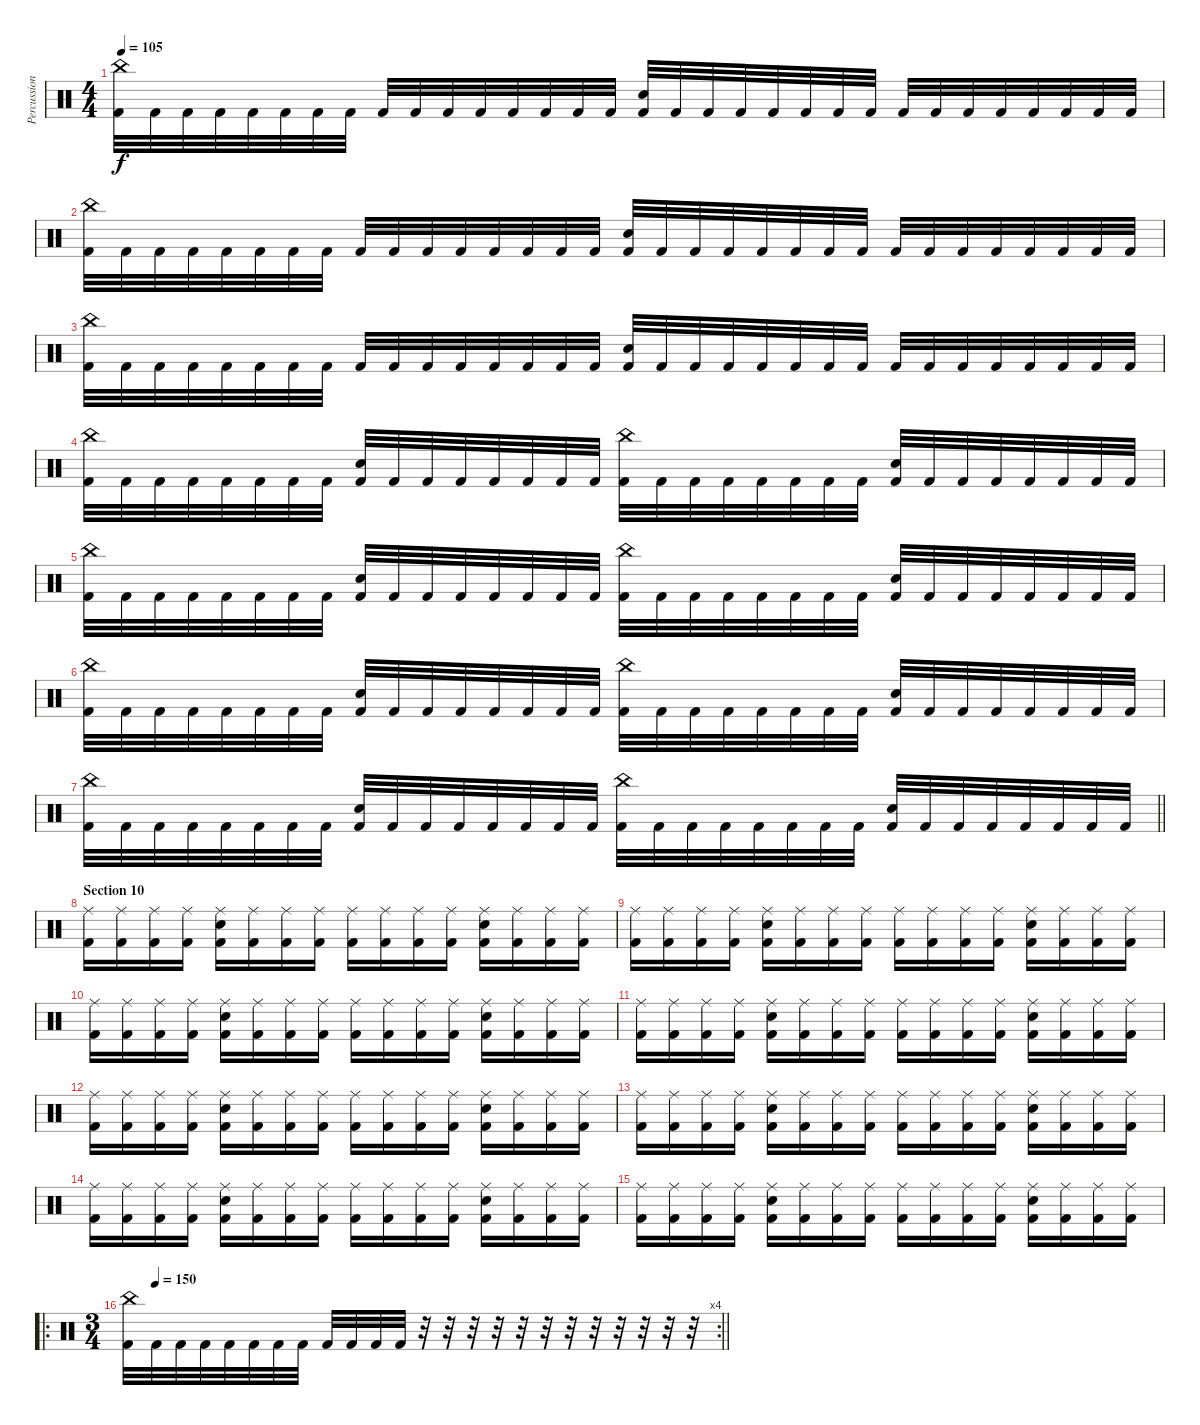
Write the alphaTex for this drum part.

\track ("Percussions" "Percussion") {instrument percussion}
\staff {score}
\articulation defaults
\ts (4 4)
\tempo 105
\clef neutral
\ks c
("China (hit)" "Kick (hit) 2").32{dy f} "Kick (hit) 2".32 "Kick (hit) 2".32 "Kick (hit) 2".32 "Kick (hit) 2".32 "Kick (hit) 2".32 "Kick (hit) 2".32 "Kick (hit) 2".32 "Kick (hit) 2".32 "Kick (hit) 2".32 "Kick (hit) 2".32 "Kick (hit) 2".32 "Kick (hit) 2".32 "Kick (hit) 2".32 "Kick (hit) 2".32 "Kick (hit) 2".32 ("Electric Snare (hit)" "Kick (hit) 2").32 "Kick (hit) 2".32 "Kick (hit) 2".32 "Kick (hit) 2".32 "Kick (hit) 2".32 "Kick (hit) 2".32 "Kick (hit) 2".32 "Kick (hit) 2".32 "Kick (hit) 2".32 "Kick (hit) 2".32 "Kick (hit) 2".32 "Kick (hit) 2".32 "Kick (hit) 2".32 "Kick (hit) 2".32 "Kick (hit) 2".32 "Kick (hit) 2".32 |
("China (hit)" "Kick (hit) 2").32 "Kick (hit) 2".32 "Kick (hit) 2".32 "Kick (hit) 2".32 "Kick (hit) 2".32 "Kick (hit) 2".32 "Kick (hit) 2".32 "Kick (hit) 2".32 "Kick (hit) 2".32 "Kick (hit) 2".32 "Kick (hit) 2".32 "Kick (hit) 2".32 "Kick (hit) 2".32 "Kick (hit) 2".32 "Kick (hit) 2".32 "Kick (hit) 2".32 ("Electric Snare (hit)" "Kick (hit) 2").32 "Kick (hit) 2".32 "Kick (hit) 2".32 "Kick (hit) 2".32 "Kick (hit) 2".32 "Kick (hit) 2".32 "Kick (hit) 2".32 "Kick (hit) 2".32 "Kick (hit) 2".32 "Kick (hit) 2".32 "Kick (hit) 2".32 "Kick (hit) 2".32 "Kick (hit) 2".32 "Kick (hit) 2".32 "Kick (hit) 2".32 "Kick (hit) 2".32 |
("China (hit)" "Kick (hit) 2").32 "Kick (hit) 2".32 "Kick (hit) 2".32 "Kick (hit) 2".32 "Kick (hit) 2".32 "Kick (hit) 2".32 "Kick (hit) 2".32 "Kick (hit) 2".32 "Kick (hit) 2".32 "Kick (hit) 2".32 "Kick (hit) 2".32 "Kick (hit) 2".32 "Kick (hit) 2".32 "Kick (hit) 2".32 "Kick (hit) 2".32 "Kick (hit) 2".32 ("Electric Snare (hit)" "Kick (hit) 2").32 "Kick (hit) 2".32 "Kick (hit) 2".32 "Kick (hit) 2".32 "Kick (hit) 2".32 "Kick (hit) 2".32 "Kick (hit) 2".32 "Kick (hit) 2".32 "Kick (hit) 2".32 "Kick (hit) 2".32 "Kick (hit) 2".32 "Kick (hit) 2".32 "Kick (hit) 2".32 "Kick (hit) 2".32 "Kick (hit) 2".32 "Kick (hit) 2".32 |
("China (hit)" "Kick (hit) 2").32 "Kick (hit) 2".32 "Kick (hit) 2".32 "Kick (hit) 2".32 "Kick (hit) 2".32 "Kick (hit) 2".32 "Kick (hit) 2".32 "Kick (hit) 2".32 ("Electric Snare (hit)" "Kick (hit) 2").32 "Kick (hit) 2".32 "Kick (hit) 2".32 "Kick (hit) 2".32 "Kick (hit) 2".32 "Kick (hit) 2".32 "Kick (hit) 2".32 "Kick (hit) 2".32 ("China (hit)" "Kick (hit) 2").32 "Kick (hit) 2".32 "Kick (hit) 2".32 "Kick (hit) 2".32 "Kick (hit) 2".32 "Kick (hit) 2".32 "Kick (hit) 2".32 "Kick (hit) 2".32 ("Electric Snare (hit)" "Kick (hit) 2").32 "Kick (hit) 2".32 "Kick (hit) 2".32 "Kick (hit) 2".32 "Kick (hit) 2".32 "Kick (hit) 2".32 "Kick (hit) 2".32 "Kick (hit) 2".32 |
("China (hit)" "Kick (hit) 2").32 "Kick (hit) 2".32 "Kick (hit) 2".32 "Kick (hit) 2".32 "Kick (hit) 2".32 "Kick (hit) 2".32 "Kick (hit) 2".32 "Kick (hit) 2".32 ("Electric Snare (hit)" "Kick (hit) 2").32 "Kick (hit) 2".32 "Kick (hit) 2".32 "Kick (hit) 2".32 "Kick (hit) 2".32 "Kick (hit) 2".32 "Kick (hit) 2".32 "Kick (hit) 2".32 ("China (hit)" "Kick (hit) 2").32 "Kick (hit) 2".32 "Kick (hit) 2".32 "Kick (hit) 2".32 "Kick (hit) 2".32 "Kick (hit) 2".32 "Kick (hit) 2".32 "Kick (hit) 2".32 ("Electric Snare (hit)" "Kick (hit) 2").32 "Kick (hit) 2".32 "Kick (hit) 2".32 "Kick (hit) 2".32 "Kick (hit) 2".32 "Kick (hit) 2".32 "Kick (hit) 2".32 "Kick (hit) 2".32 |
("China (hit)" "Kick (hit) 2").32 "Kick (hit) 2".32 "Kick (hit) 2".32 "Kick (hit) 2".32 "Kick (hit) 2".32 "Kick (hit) 2".32 "Kick (hit) 2".32 "Kick (hit) 2".32 ("Electric Snare (hit)" "Kick (hit) 2").32 "Kick (hit) 2".32 "Kick (hit) 2".32 "Kick (hit) 2".32 "Kick (hit) 2".32 "Kick (hit) 2".32 "Kick (hit) 2".32 "Kick (hit) 2".32 ("China (hit)" "Kick (hit) 2").32 "Kick (hit) 2".32 "Kick (hit) 2".32 "Kick (hit) 2".32 "Kick (hit) 2".32 "Kick (hit) 2".32 "Kick (hit) 2".32 "Kick (hit) 2".32 ("Electric Snare (hit)" "Kick (hit) 2").32 "Kick (hit) 2".32 "Kick (hit) 2".32 "Kick (hit) 2".32 "Kick (hit) 2".32 "Kick (hit) 2".32 "Kick (hit) 2".32 "Kick (hit) 2".32 |
\barLineRight lightlight
("China (hit)" "Kick (hit) 2").32 "Kick (hit) 2".32 "Kick (hit) 2".32 "Kick (hit) 2".32 "Kick (hit) 2".32 "Kick (hit) 2".32 "Kick (hit) 2".32 "Kick (hit) 2".32 ("Electric Snare (hit)" "Kick (hit) 2").32 "Kick (hit) 2".32 "Kick (hit) 2".32 "Kick (hit) 2".32 "Kick (hit) 2".32 "Kick (hit) 2".32 "Kick (hit) 2".32 "Kick (hit) 2".32 ("China (hit)" "Kick (hit) 2").32 "Kick (hit) 2".32 "Kick (hit) 2".32 "Kick (hit) 2".32 "Kick (hit) 2".32 "Kick (hit) 2".32 "Kick (hit) 2".32 "Kick (hit) 2".32 ("Electric Snare (hit)" "Kick (hit) 2").32 "Kick (hit) 2".32 "Kick (hit) 2".32 "Kick (hit) 2".32 "Kick (hit) 2".32 "Kick (hit) 2".32 "Kick (hit) 2".32 "Kick (hit) 2".32 |
\section ("" "Section 10")
("Ride (middle)" "Kick (hit) 2").16 ("Ride (middle)" "Kick (hit) 2").16 ("Ride (middle)" "Kick (hit) 2").16 ("Ride (middle)" "Kick (hit) 2").16 ("Ride (middle)" "Electric Snare (hit)" "Kick (hit) 2").16 ("Ride (middle)" "Kick (hit) 2").16 ("Ride (middle)" "Kick (hit) 2").16 ("Ride (middle)" "Kick (hit) 2").16 ("Ride (middle)" "Kick (hit) 2").16 ("Ride (middle)" "Kick (hit) 2").16 ("Ride (middle)" "Kick (hit) 2").16 ("Ride (middle)" "Kick (hit) 2").16 ("Ride (middle)" "Electric Snare (hit)" "Kick (hit) 2").16 ("Ride (middle)" "Kick (hit) 2").16 ("Ride (middle)" "Kick (hit) 2").16 ("Ride (middle)" "Kick (hit) 2").16 |
("Ride (middle)" "Kick (hit) 2").16 ("Ride (middle)" "Kick (hit) 2").16 ("Ride (middle)" "Kick (hit) 2").16 ("Ride (middle)" "Kick (hit) 2").16 ("Ride (middle)" "Electric Snare (hit)" "Kick (hit) 2").16 ("Ride (middle)" "Kick (hit) 2").16 ("Ride (middle)" "Kick (hit) 2").16 ("Ride (middle)" "Kick (hit) 2").16 ("Ride (middle)" "Kick (hit) 2").16 ("Ride (middle)" "Kick (hit) 2").16 ("Ride (middle)" "Kick (hit) 2").16 ("Ride (middle)" "Kick (hit) 2").16 ("Ride (middle)" "Electric Snare (hit)" "Kick (hit) 2").16 ("Ride (middle)" "Kick (hit) 2").16 ("Ride (middle)" "Kick (hit) 2").16 ("Ride (middle)" "Kick (hit) 2").16 |
("Ride (middle)" "Kick (hit) 2").16 ("Ride (middle)" "Kick (hit) 2").16 ("Ride (middle)" "Kick (hit) 2").16 ("Ride (middle)" "Kick (hit) 2").16 ("Ride (middle)" "Electric Snare (hit)" "Kick (hit) 2").16 ("Ride (middle)" "Kick (hit) 2").16 ("Ride (middle)" "Kick (hit) 2").16 ("Ride (middle)" "Kick (hit) 2").16 ("Ride (middle)" "Kick (hit) 2").16 ("Ride (middle)" "Kick (hit) 2").16 ("Ride (middle)" "Kick (hit) 2").16 ("Ride (middle)" "Kick (hit) 2").16 ("Ride (middle)" "Electric Snare (hit)" "Kick (hit) 2").16 ("Ride (middle)" "Kick (hit) 2").16 ("Ride (middle)" "Kick (hit) 2").16 ("Ride (middle)" "Kick (hit) 2").16 |
("Ride (middle)" "Kick (hit) 2").16 ("Ride (middle)" "Kick (hit) 2").16 ("Ride (middle)" "Kick (hit) 2").16 ("Ride (middle)" "Kick (hit) 2").16 ("Ride (middle)" "Electric Snare (hit)" "Kick (hit) 2").16 ("Ride (middle)" "Kick (hit) 2").16 ("Ride (middle)" "Kick (hit) 2").16 ("Ride (middle)" "Kick (hit) 2").16 ("Ride (middle)" "Kick (hit) 2").16 ("Ride (middle)" "Kick (hit) 2").16 ("Ride (middle)" "Kick (hit) 2").16 ("Ride (middle)" "Kick (hit) 2").16 ("Ride (middle)" "Electric Snare (hit)" "Kick (hit) 2").16 ("Ride (middle)" "Kick (hit) 2").16 ("Ride (middle)" "Kick (hit) 2").16 ("Ride (middle)" "Kick (hit) 2").16 |
("Ride (middle)" "Kick (hit) 2").16 ("Ride (middle)" "Kick (hit) 2").16 ("Ride (middle)" "Kick (hit) 2").16 ("Ride (middle)" "Kick (hit) 2").16 ("Ride (middle)" "Electric Snare (hit)" "Kick (hit) 2").16 ("Ride (middle)" "Kick (hit) 2").16 ("Ride (middle)" "Kick (hit) 2").16 ("Ride (middle)" "Kick (hit) 2").16 ("Ride (middle)" "Kick (hit) 2").16 ("Ride (middle)" "Kick (hit) 2").16 ("Ride (middle)" "Kick (hit) 2").16 ("Ride (middle)" "Kick (hit) 2").16 ("Ride (middle)" "Electric Snare (hit)" "Kick (hit) 2").16 ("Ride (middle)" "Kick (hit) 2").16 ("Ride (middle)" "Kick (hit) 2").16 ("Ride (middle)" "Kick (hit) 2").16 |
("Ride (middle)" "Kick (hit) 2").16 ("Ride (middle)" "Kick (hit) 2").16 ("Ride (middle)" "Kick (hit) 2").16 ("Ride (middle)" "Kick (hit) 2").16 ("Ride (middle)" "Electric Snare (hit)" "Kick (hit) 2").16 ("Ride (middle)" "Kick (hit) 2").16 ("Ride (middle)" "Kick (hit) 2").16 ("Ride (middle)" "Kick (hit) 2").16 ("Ride (middle)" "Kick (hit) 2").16 ("Ride (middle)" "Kick (hit) 2").16 ("Ride (middle)" "Kick (hit) 2").16 ("Ride (middle)" "Kick (hit) 2").16 ("Ride (middle)" "Electric Snare (hit)" "Kick (hit) 2").16 ("Ride (middle)" "Kick (hit) 2").16 ("Ride (middle)" "Kick (hit) 2").16 ("Ride (middle)" "Kick (hit) 2").16 |
("Ride (middle)" "Kick (hit) 2").16 ("Ride (middle)" "Kick (hit) 2").16 ("Ride (middle)" "Kick (hit) 2").16 ("Ride (middle)" "Kick (hit) 2").16 ("Ride (middle)" "Electric Snare (hit)" "Kick (hit) 2").16 ("Ride (middle)" "Kick (hit) 2").16 ("Ride (middle)" "Kick (hit) 2").16 ("Ride (middle)" "Kick (hit) 2").16 ("Ride (middle)" "Kick (hit) 2").16 ("Ride (middle)" "Kick (hit) 2").16 ("Ride (middle)" "Kick (hit) 2").16 ("Ride (middle)" "Kick (hit) 2").16 ("Ride (middle)" "Electric Snare (hit)" "Kick (hit) 2").16 ("Ride (middle)" "Kick (hit) 2").16 ("Ride (middle)" "Kick (hit) 2").16 ("Ride (middle)" "Kick (hit) 2").16 |
("Ride (middle)" "Kick (hit) 2").16 ("Ride (middle)" "Kick (hit) 2").16 ("Ride (middle)" "Kick (hit) 2").16 ("Ride (middle)" "Kick (hit) 2").16 ("Ride (middle)" "Electric Snare (hit)" "Kick (hit) 2").16 ("Ride (middle)" "Kick (hit) 2").16 ("Ride (middle)" "Kick (hit) 2").16 ("Ride (middle)" "Kick (hit) 2").16 ("Ride (middle)" "Kick (hit) 2").16 ("Ride (middle)" "Kick (hit) 2").16 ("Ride (middle)" "Kick (hit) 2").16 ("Ride (middle)" "Kick (hit) 2").16 ("Ride (middle)" "Electric Snare (hit)" "Kick (hit) 2").16 ("Ride (middle)" "Kick (hit) 2").16 ("Ride (middle)" "Kick (hit) 2").16 ("Ride (middle)" "Kick (hit) 2").16 |
\ro
\rc 4
\ts (3 4)
\tempo (150 0.041666666666666664)
\barLineRight lightlight
("China (hit)" "Kick (hit) 2").32 "Kick (hit) 2".32 "Kick (hit) 2".32 "Kick (hit) 2".32 "Kick (hit) 2".32 "Kick (hit) 2".32 "Kick (hit) 2".32 "Kick (hit) 2".32 "Kick (hit) 2".32 "Kick (hit) 2".32 "Kick (hit) 2".32 "Kick (hit) 2".32 r.32 r.32 r.32 r.32 r.32 r.32 r.32 r.32 r.32 r.32 r.32 r.32
